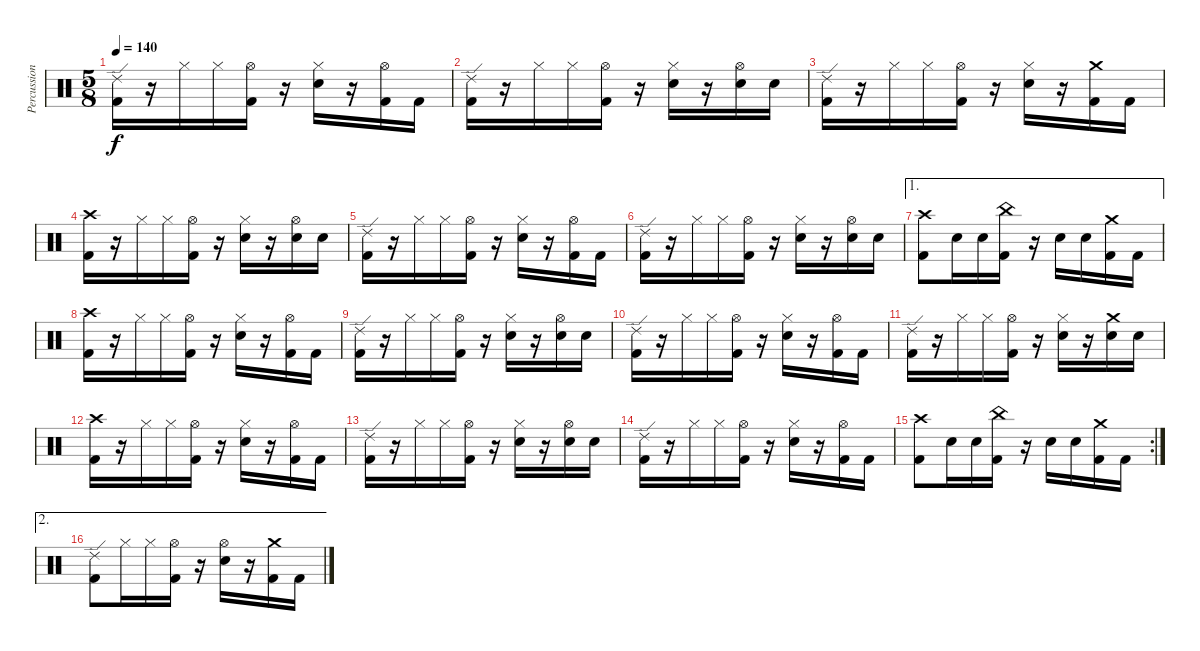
\track ("Percussion" "Percussion") {instrument percussion}
\staff {score}
\articulation defaults
\ts (5 8)
\tempo 140
\clef neutral
\ks c
("Ride (edge) 2" "Kick (hit) 2").16{dy f} r.16 "Hi-Hat (closed)".16 "Hi-Hat (closed)".16 ("Hi-Hat (open)" "Kick (hit) 2").16 r.16 ("Hi-Hat (closed)" "Electric Snare (hit)").16 r.16 ("Hi-Hat (open)" "Kick (hit) 2").16 "Kick (hit) 2".16 |
("Ride (edge) 2" "Kick (hit) 2").16 r.16 "Hi-Hat (closed)".16 "Hi-Hat (closed)".16 ("Hi-Hat (open)" "Kick (hit) 2").16 r.16 ("Hi-Hat (closed)" "Electric Snare (hit)").16 r.16 ("Hi-Hat (open)" "Electric Snare (hit)").16 "Electric Snare (hit)".16 |
("Ride (edge) 2" "Kick (hit) 2").16 r.16 "Hi-Hat (closed)".16 "Hi-Hat (closed)".16 ("Hi-Hat (open)" "Kick (hit) 2").16 r.16 ("Hi-Hat (closed)" "Electric Snare (hit)").16 r.16 ("Crash medium (hit)" "Kick (hit) 2").16 "Kick (hit) 2".16 |
("Crash high (hit)" "Kick (hit) 2").16 r.16 "Hi-Hat (closed)".16 "Hi-Hat (closed)".16 ("Hi-Hat (open)" "Kick (hit) 2").16 r.16 ("Hi-Hat (closed)" "Electric Snare (hit)").16 r.16 ("Hi-Hat (open)" "Electric Snare (hit)").16 "Electric Snare (hit)".16 |
("Ride (edge) 2" "Kick (hit) 2").16 r.16 "Hi-Hat (closed)".16 "Hi-Hat (closed)".16 ("Hi-Hat (open)" "Kick (hit) 2").16 r.16 ("Hi-Hat (closed)" "Electric Snare (hit)").16 r.16 ("Hi-Hat (open)" "Kick (hit) 2").16 "Kick (hit) 2".16 |
("Ride (edge) 2" "Kick (hit) 2").16 r.16 "Hi-Hat (closed)".16 "Hi-Hat (closed)".16 ("Hi-Hat (open)" "Kick (hit) 2").16 r.16 ("Hi-Hat (closed)" "Electric Snare (hit)").16 r.16 ("Hi-Hat (open)" "Electric Snare (hit)").16 "Electric Snare (hit)".16 |
\ae 1
("Crash high (hit)" "Kick (hit) 2").8 "Electric Snare (hit)".16 "Electric Snare (hit)".16 ("China (hit)" "Kick (hit) 2").16 r.16 "Electric Snare (hit)".16 "Electric Snare (hit)".16 ("Crash medium (hit)" "Kick (hit) 2").16 "Kick (hit) 2".16 |
("Crash high (hit)" "Kick (hit) 2").16 r.16 "Hi-Hat (closed)".16 "Hi-Hat (closed)".16 ("Hi-Hat (open)" "Kick (hit) 2").16 r.16 ("Hi-Hat (closed)" "Electric Snare (hit)").16 r.16 ("Hi-Hat (open)" "Kick (hit) 2").16 "Kick (hit) 2".16 |
("Ride (edge) 2" "Kick (hit) 2").16 r.16 "Hi-Hat (closed)".16 "Hi-Hat (closed)".16 ("Hi-Hat (open)" "Kick (hit) 2").16 r.16 ("Hi-Hat (closed)" "Electric Snare (hit)").16 r.16 ("Hi-Hat (open)" "Electric Snare (hit)").16 "Electric Snare (hit)".16 |
("Ride (edge) 2" "Kick (hit) 2").16 r.16 "Hi-Hat (closed)".16 "Hi-Hat (closed)".16 ("Hi-Hat (open)" "Kick (hit) 2").16 r.16 ("Hi-Hat (closed)" "Electric Snare (hit)").16 r.16 ("Hi-Hat (open)" "Kick (hit) 2").16 "Kick (hit) 2".16 |
("Ride (edge) 2" "Kick (hit) 2").16 r.16 "Hi-Hat (closed)".16 "Hi-Hat (closed)".16 ("Hi-Hat (open)" "Kick (hit) 2").16 r.16 ("Hi-Hat (closed)" "Electric Snare (hit)").16 r.16 ("Crash medium (hit)" "Electric Snare (hit)").16 "Electric Snare (hit)".16 |
("Crash high (hit)" "Kick (hit) 2").16 r.16 "Hi-Hat (closed)".16 "Hi-Hat (closed)".16 ("Hi-Hat (open)" "Kick (hit) 2").16 r.16 ("Hi-Hat (closed)" "Electric Snare (hit)").16 r.16 ("Hi-Hat (open)" "Kick (hit) 2").16 "Kick (hit) 2".16 |
("Ride (edge) 2" "Kick (hit) 2").16 r.16 "Hi-Hat (closed)".16 "Hi-Hat (closed)".16 ("Hi-Hat (open)" "Kick (hit) 2").16 r.16 ("Hi-Hat (closed)" "Electric Snare (hit)").16 r.16 ("Hi-Hat (open)" "Electric Snare (hit)").16 "Electric Snare (hit)".16 |
("Ride (edge) 2" "Kick (hit) 2").16 r.16 "Hi-Hat (closed)".16 "Hi-Hat (closed)".16 ("Hi-Hat (open)" "Kick (hit) 2").16 r.16 ("Hi-Hat (closed)" "Electric Snare (hit)").16 r.16 ("Hi-Hat (open)" "Kick (hit) 2").16 "Kick (hit) 2".16 |
\rc 2
("Crash high (hit)" "Kick (hit) 2").8 "Electric Snare (hit)".16 "Electric Snare (hit)".16 ("China (hit)" "Kick (hit) 2").16 r.16 "Electric Snare (hit)".16 "Electric Snare (hit)".16 ("Crash medium (hit)" "Kick (hit) 2").16 "Kick (hit) 2".16 |
\ae 2
("Ride (edge) 2" "Kick (hit) 2").8 "Hi-Hat (closed)".16 "Hi-Hat (closed)".16 ("Hi-Hat (open)" "Kick (hit) 2").16 r.16 ("Hi-Hat (open)" "Electric Snare (hit)").16 r.16 ("Crash medium (hit)" "Kick (hit) 2").16 "Kick (hit) 2".16
